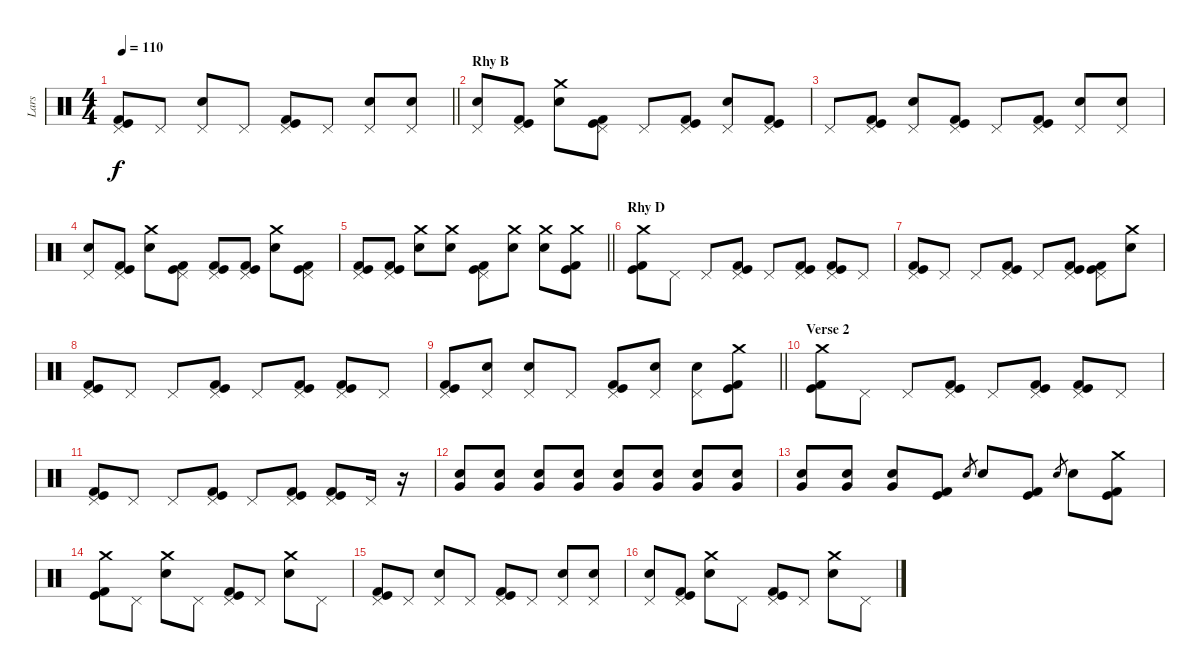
\track ("Lars" "Lars") {instrument percussion}
\staff {score}
\articulation defaults
\ts (4 4)
\tempo 110
\clef neutral
\barLineRight lightlight
\ks c
("Pedal Hi-Hat (hit)" "Kick (hit)" "Kick (hit) 2").8{dy f} "Pedal Hi-Hat (hit)".8 ("Pedal Hi-Hat (hit)" "Electric Snare (hit)").8 "Pedal Hi-Hat (hit)".8 ("Pedal Hi-Hat (hit)" "Kick (hit)" "Kick (hit) 2").8 "Pedal Hi-Hat (hit)".8 ("Pedal Hi-Hat (hit)" "Electric Snare (hit)").8 ("Pedal Hi-Hat (hit)" "Electric Snare (hit)").8 |
\section ("" "Rhy B")
("Pedal Hi-Hat (hit)" "Electric Snare (hit)").8 ("Pedal Hi-Hat (hit)" "Kick (hit)" "Kick (hit) 2").8 ("Crash medium (hit)" "Electric Snare (hit)").8 ("Pedal Hi-Hat (hit)" "Kick (hit)" "Kick (hit) 2").8 "Pedal Hi-Hat (hit)".8 ("Pedal Hi-Hat (hit)" "Kick (hit)" "Kick (hit) 2").8 ("Pedal Hi-Hat (hit)" "Electric Snare (hit)").8 ("Pedal Hi-Hat (hit)" "Kick (hit)" "Kick (hit) 2").8 |
"Pedal Hi-Hat (hit)".8 ("Pedal Hi-Hat (hit)" "Kick (hit)" "Kick (hit) 2").8 ("Pedal Hi-Hat (hit)" "Electric Snare (hit)").8 ("Pedal Hi-Hat (hit)" "Kick (hit)" "Kick (hit) 2").8 "Pedal Hi-Hat (hit)".8 ("Pedal Hi-Hat (hit)" "Kick (hit)" "Kick (hit) 2").8 ("Pedal Hi-Hat (hit)" "Electric Snare (hit)").8 ("Pedal Hi-Hat (hit)" "Electric Snare (hit)").8 |
("Pedal Hi-Hat (hit)" "Electric Snare (hit)").8 ("Pedal Hi-Hat (hit)" "Kick (hit)" "Kick (hit) 2").8 ("Crash medium (hit)" "Electric Snare (hit)").8 ("Pedal Hi-Hat (hit)" "Kick (hit)" "Kick (hit) 2").8 ("Pedal Hi-Hat (hit)" "Kick (hit)" "Kick (hit) 2").8 ("Pedal Hi-Hat (hit)" "Kick (hit)" "Kick (hit) 2").8 ("Crash medium (hit)" "Electric Snare (hit)").8 ("Pedal Hi-Hat (hit)" "Kick (hit)" "Kick (hit) 2").8 |
\barLineRight lightlight
("Pedal Hi-Hat (hit)" "Kick (hit)" "Kick (hit) 2").8 ("Pedal Hi-Hat (hit)" "Kick (hit)" "Kick (hit) 2").8 ("Crash medium (hit)" "Electric Snare (hit)").8 ("Crash medium (hit)" "Electric Snare (hit)").8 ("Pedal Hi-Hat (hit)" "Kick (hit)" "Kick (hit) 2").8 ("Crash medium (hit)" "Electric Snare (hit)").8 ("Crash medium (hit)" "Electric Snare (hit)").8 ("Crash medium (hit)" "Kick (hit)" "Kick (hit) 2").8 |
\section ("" "Rhy D")
("Crash medium (hit)" "Kick (hit)" "Kick (hit) 2").8 "Pedal Hi-Hat (hit)".8 "Pedal Hi-Hat (hit)".8 ("Pedal Hi-Hat (hit)" "Kick (hit)" "Kick (hit) 2").8 "Pedal Hi-Hat (hit)".8 ("Pedal Hi-Hat (hit)" "Kick (hit)" "Kick (hit) 2").8 ("Pedal Hi-Hat (hit)" "Kick (hit)" "Kick (hit) 2").8 "Pedal Hi-Hat (hit)".8 |
("Pedal Hi-Hat (hit)" "Kick (hit)" "Kick (hit) 2").8 "Pedal Hi-Hat (hit)".8 "Pedal Hi-Hat (hit)".8 ("Pedal Hi-Hat (hit)" "Kick (hit)" "Kick (hit) 2").8 "Pedal Hi-Hat (hit)".8 ("Pedal Hi-Hat (hit)" "Kick (hit)" "Kick (hit) 2").8 ("Pedal Hi-Hat (hit)" "Kick (hit)" "Kick (hit) 2").8 ("Crash medium (hit)" "Electric Snare (hit)").8 |
("Pedal Hi-Hat (hit)" "Kick (hit)" "Kick (hit) 2").8 "Pedal Hi-Hat (hit)".8 "Pedal Hi-Hat (hit)".8 ("Pedal Hi-Hat (hit)" "Kick (hit)" "Kick (hit) 2").8 "Pedal Hi-Hat (hit)".8 ("Pedal Hi-Hat (hit)" "Kick (hit)" "Kick (hit) 2").8 ("Pedal Hi-Hat (hit)" "Kick (hit)" "Kick (hit) 2").8 "Pedal Hi-Hat (hit)".8 |
\barLineRight lightlight
("Pedal Hi-Hat (hit)" "Kick (hit)" "Kick (hit) 2").8 ("Pedal Hi-Hat (hit)" "Electric Snare (hit)").8 ("Pedal Hi-Hat (hit)" "Electric Snare (hit)").8 "Pedal Hi-Hat (hit)".8 ("Pedal Hi-Hat (hit)" "Kick (hit)" "Kick (hit) 2").8 ("Pedal Hi-Hat (hit)" "Electric Snare (hit)").8 ("Pedal Hi-Hat (hit)" "Electric Snare (hit)").8 ("Crash medium (hit)" "Kick (hit)" "Kick (hit) 2").8 |
\section ("" "Verse 2")
("Crash medium (hit)" "Kick (hit)" "Kick (hit) 2").8 "Pedal Hi-Hat (hit)".8 "Pedal Hi-Hat (hit)".8 ("Pedal Hi-Hat (hit)" "Kick (hit)" "Kick (hit) 2").8 "Pedal Hi-Hat (hit)".8 ("Pedal Hi-Hat (hit)" "Kick (hit)" "Kick (hit) 2").8 ("Pedal Hi-Hat (hit)" "Kick (hit)" "Kick (hit) 2").8 "Pedal Hi-Hat (hit)".8 |
("Pedal Hi-Hat (hit)" "Kick (hit)" "Kick (hit) 2").8 "Pedal Hi-Hat (hit)".8 "Pedal Hi-Hat (hit)".8 ("Pedal Hi-Hat (hit)" "Kick (hit)" "Kick (hit) 2").8 "Pedal Hi-Hat (hit)".8 ("Pedal Hi-Hat (hit)" "Kick (hit)" "Kick (hit) 2").8 ("Pedal Hi-Hat (hit)" "Kick (hit)" "Kick (hit) 2").8 "Pedal Hi-Hat (hit)".16 r.16{volume 5} |
("Electric Snare (hit)" "Very Low Tom (hit)").8{volume 16} ("Electric Snare (hit)" "Very Low Tom (hit)").8 ("Electric Snare (hit)" "Very Low Tom (hit)").8 ("Electric Snare (hit)" "Very Low Tom (hit)").8 ("Electric Snare (hit)" "Very Low Tom (hit)").8 ("Electric Snare (hit)" "Very Low Tom (hit)").8 ("Electric Snare (hit)" "Very Low Tom (hit)").8 ("Electric Snare (hit)" "Very Low Tom (hit)").8 |
("Electric Snare (hit)" "Very Low Tom (hit)").8 ("Electric Snare (hit)" "Very Low Tom (hit)").8 ("Electric Snare (hit)" "Very Low Tom (hit)").8 ("Kick (hit)" "Kick (hit) 2").8 "Electric Snare (hit)".8{gr} "Electric Snare (hit)".8 ("Kick (hit)" "Kick (hit) 2").8 "Electric Snare (hit)".8{gr} "Electric Snare (hit)".8 ("Crash medium (hit)" "Kick (hit)" "Kick (hit) 2").8 |
("Crash medium (hit)" "Kick (hit)" "Kick (hit) 2").8 "Pedal Hi-Hat (hit)".8 ("Crash medium (hit)" "Electric Snare (hit)").8 "Pedal Hi-Hat (hit)".8 ("Pedal Hi-Hat (hit)" "Kick (hit)" "Kick (hit) 2").8 "Pedal Hi-Hat (hit)".8 ("Crash medium (hit)" "Electric Snare (hit)").8 "Pedal Hi-Hat (hit)".8 |
("Pedal Hi-Hat (hit)" "Kick (hit)" "Kick (hit) 2").8 "Pedal Hi-Hat (hit)".8 ("Pedal Hi-Hat (hit)" "Electric Snare (hit)").8 "Pedal Hi-Hat (hit)".8 ("Pedal Hi-Hat (hit)" "Kick (hit)" "Kick (hit) 2").8 "Pedal Hi-Hat (hit)".8 ("Pedal Hi-Hat (hit)" "Electric Snare (hit)").8 ("Pedal Hi-Hat (hit)" "Electric Snare (hit)").8 |
("Pedal Hi-Hat (hit)" "Electric Snare (hit)").8 ("Pedal Hi-Hat (hit)" "Kick (hit)" "Kick (hit) 2").8 ("Crash medium (hit)" "Electric Snare (hit)").8 "Pedal Hi-Hat (hit)".8 ("Pedal Hi-Hat (hit)" "Kick (hit)" "Kick (hit) 2").8 "Pedal Hi-Hat (hit)".8 ("Crash medium (hit)" "Electric Snare (hit)").8 "Pedal Hi-Hat (hit)".8
